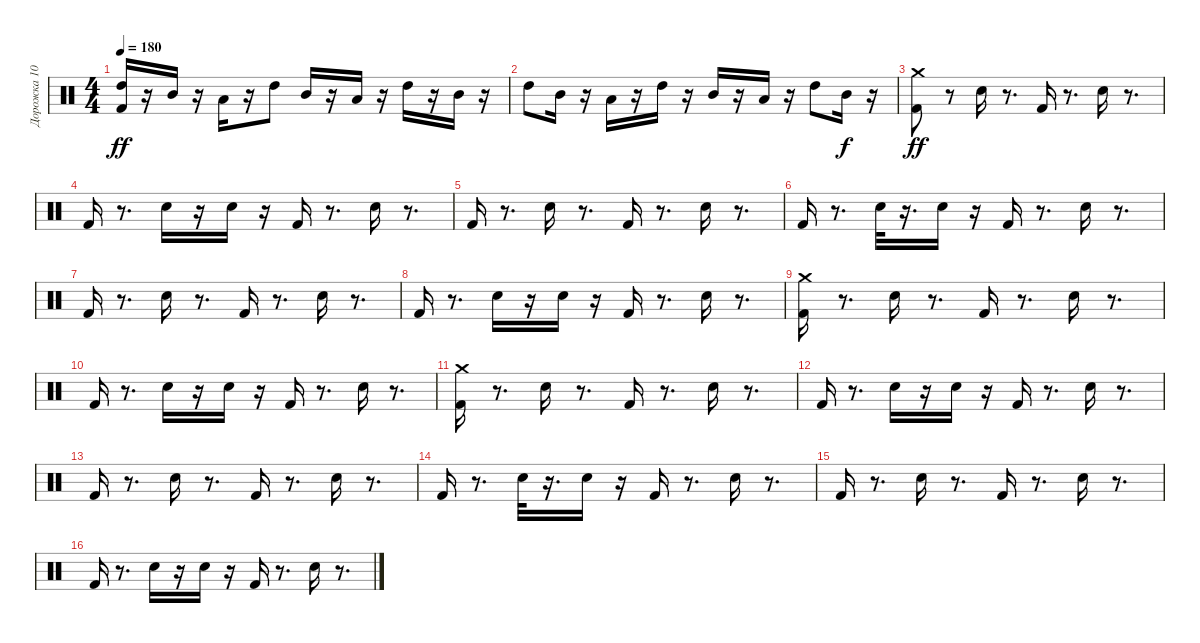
\track ("Дорожка 10" "Дорожка 10") {instrument percussion}
\staff {score}
\articulation defaults
\ts (4 4)
\tempo 180
\clef neutral
\ks c
("Kick (hit) 2" "High Tom (hit)").16{dy ff} r.16 "Mid Tom (hit)".16 r.16 "Low Tom (hit)".16 r.16 "High Tom (hit)".8 "Mid Tom (hit)".16 r.16 "Low Tom (hit)".16 r.16 "High Tom (hit)".16 r.16 "Mid Tom (hit)".16 r.16 |
"High Tom (hit)".8 "Mid Tom (hit)".16 r.16 "Low Tom (hit)".16 r.16 "High Tom (hit)".16 r.16 "Mid Tom (hit)".16 r.16 "Low Tom (hit)".16 r.16 "High Tom (hit)".8 "Mid Tom (hit)".16{dy f} r.16 |
("Crash medium (hit)" "Kick (hit) 2").8{dy ff} r.8 "Electric Snare (hit)".16 r.8{d} "Kick (hit) 2".16 r.8{d} "Electric Snare (hit)".16 r.8{d} |
"Kick (hit) 2".16 r.8{d} "Electric Snare (hit)".16 r.16 "Electric Snare (hit)".16 r.16 "Kick (hit) 2".16 r.8{d} "Electric Snare (hit)".16 r.8{d} |
"Kick (hit) 2".16 r.8{d} "Electric Snare (hit)".16 r.8{d} "Kick (hit) 2".16 r.8{d} "Electric Snare (hit)".16 r.8{d} |
"Kick (hit) 2".16 r.8{d} "Electric Snare (hit)".32 r.16{d} "Electric Snare (hit)".16 r.16 "Kick (hit) 2".16 r.8{d} "Electric Snare (hit)".16 r.8{d} |
"Kick (hit) 2".16 r.8{d} "Electric Snare (hit)".16 r.8{d} "Kick (hit) 2".16 r.8{d} "Electric Snare (hit)".16 r.8{d} |
"Kick (hit) 2".16 r.8{d} "Electric Snare (hit)".16 r.16 "Electric Snare (hit)".16 r.16 "Kick (hit) 2".16 r.8{d} "Electric Snare (hit)".16 r.8{d} |
("Crash medium (hit)" "Kick (hit) 2").16 r.8{d} "Electric Snare (hit)".16 r.8{d} "Kick (hit) 2".16 r.8{d} "Electric Snare (hit)".16 r.8{d} |
"Kick (hit) 2".16 r.8{d} "Electric Snare (hit)".16 r.16 "Electric Snare (hit)".16 r.16 "Kick (hit) 2".16 r.8{d} "Electric Snare (hit)".16 r.8{d} |
("Crash medium (hit)" "Kick (hit) 2").16 r.8{d} "Electric Snare (hit)".16 r.8{d} "Kick (hit) 2".16 r.8{d} "Electric Snare (hit)".16 r.8{d} |
"Kick (hit) 2".16 r.8{d} "Electric Snare (hit)".16 r.16 "Electric Snare (hit)".16 r.16 "Kick (hit) 2".16 r.8{d} "Electric Snare (hit)".16 r.8{d} |
"Kick (hit) 2".16 r.8{d} "Electric Snare (hit)".16 r.8{d} "Kick (hit) 2".16 r.8{d} "Electric Snare (hit)".16 r.8{d} |
"Kick (hit) 2".16 r.8{d} "Electric Snare (hit)".32 r.16{d} "Electric Snare (hit)".16 r.16 "Kick (hit) 2".16 r.8{d} "Electric Snare (hit)".16 r.8{d} |
"Kick (hit) 2".16 r.8{d} "Electric Snare (hit)".16 r.8{d} "Kick (hit) 2".16 r.8{d} "Electric Snare (hit)".16 r.8{d} |
"Kick (hit) 2".16 r.8{d} "Electric Snare (hit)".16 r.16 "Electric Snare (hit)".16 r.16 "Kick (hit) 2".16 r.8{d} "Electric Snare (hit)".16 r.8{d}
